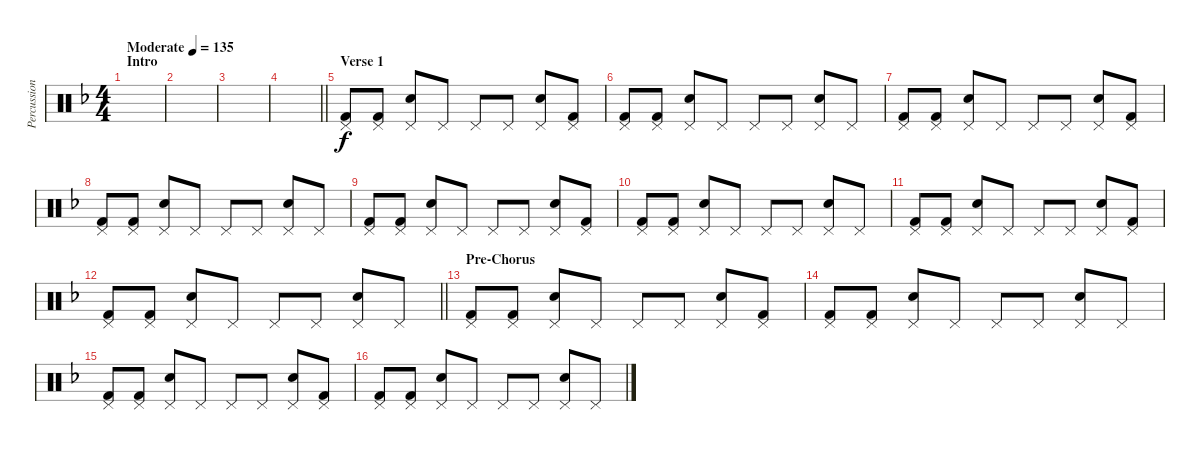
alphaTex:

\track ("Percussion" "Percussion") {instrument percussion}
\staff {score}
\articulation defaults
\ts (4 4)
\section ("" "Intro")
\tempo (135 "Moderate")
\clef neutral
\ks f
|
|
|
\barLineRight lightlight
|
\section ("" "Verse 1")
("Pedal Hi-Hat (hit)" "Kick (hit) 2").8 ("Pedal Hi-Hat (hit)" "Kick (hit) 2").8 ("Pedal Hi-Hat (hit)" "Snare (hit) 2").8 "Pedal Hi-Hat (hit)".8 "Pedal Hi-Hat (hit)".8 "Pedal Hi-Hat (hit)".8 ("Pedal Hi-Hat (hit)" "Snare (hit) 2").8 ("Pedal Hi-Hat (hit)" "Kick (hit) 2").8 |
("Pedal Hi-Hat (hit)" "Kick (hit) 2").8 ("Pedal Hi-Hat (hit)" "Kick (hit) 2").8 ("Pedal Hi-Hat (hit)" "Snare (hit) 2").8 "Pedal Hi-Hat (hit)".8 "Pedal Hi-Hat (hit)".8 "Pedal Hi-Hat (hit)".8 ("Pedal Hi-Hat (hit)" "Snare (hit) 2").8 "Pedal Hi-Hat (hit)".8 |
("Pedal Hi-Hat (hit)" "Kick (hit) 2").8 ("Pedal Hi-Hat (hit)" "Kick (hit) 2").8 ("Pedal Hi-Hat (hit)" "Snare (hit) 2").8 "Pedal Hi-Hat (hit)".8 "Pedal Hi-Hat (hit)".8 "Pedal Hi-Hat (hit)".8 ("Pedal Hi-Hat (hit)" "Snare (hit) 2").8 ("Pedal Hi-Hat (hit)" "Kick (hit) 2").8 |
("Pedal Hi-Hat (hit)" "Kick (hit) 2").8 ("Pedal Hi-Hat (hit)" "Kick (hit) 2").8 ("Pedal Hi-Hat (hit)" "Snare (hit) 2").8 "Pedal Hi-Hat (hit)".8 "Pedal Hi-Hat (hit)".8 "Pedal Hi-Hat (hit)".8 ("Pedal Hi-Hat (hit)" "Snare (hit) 2").8 "Pedal Hi-Hat (hit)".8 |
("Pedal Hi-Hat (hit)" "Kick (hit) 2").8 ("Pedal Hi-Hat (hit)" "Kick (hit) 2").8 ("Pedal Hi-Hat (hit)" "Snare (hit) 2").8 "Pedal Hi-Hat (hit)".8 "Pedal Hi-Hat (hit)".8 "Pedal Hi-Hat (hit)".8 ("Pedal Hi-Hat (hit)" "Snare (hit) 2").8 ("Pedal Hi-Hat (hit)" "Kick (hit) 2").8 |
("Pedal Hi-Hat (hit)" "Kick (hit) 2").8 ("Pedal Hi-Hat (hit)" "Kick (hit) 2").8 ("Pedal Hi-Hat (hit)" "Snare (hit) 2").8 "Pedal Hi-Hat (hit)".8 "Pedal Hi-Hat (hit)".8 "Pedal Hi-Hat (hit)".8 ("Pedal Hi-Hat (hit)" "Snare (hit) 2").8 "Pedal Hi-Hat (hit)".8 |
("Pedal Hi-Hat (hit)" "Kick (hit) 2").8 ("Pedal Hi-Hat (hit)" "Kick (hit) 2").8 ("Pedal Hi-Hat (hit)" "Snare (hit) 2").8 "Pedal Hi-Hat (hit)".8 "Pedal Hi-Hat (hit)".8 "Pedal Hi-Hat (hit)".8 ("Pedal Hi-Hat (hit)" "Snare (hit) 2").8 ("Pedal Hi-Hat (hit)" "Kick (hit) 2").8 |
\barLineRight lightlight
("Pedal Hi-Hat (hit)" "Kick (hit) 2").8 ("Pedal Hi-Hat (hit)" "Kick (hit) 2").8 ("Pedal Hi-Hat (hit)" "Snare (hit) 2").8 "Pedal Hi-Hat (hit)".8 "Pedal Hi-Hat (hit)".8 "Pedal Hi-Hat (hit)".8 ("Pedal Hi-Hat (hit)" "Snare (hit) 2").8 "Pedal Hi-Hat (hit)".8 |
\section ("" "Pre-Chorus")
("Pedal Hi-Hat (hit)" "Kick (hit) 2").8 ("Pedal Hi-Hat (hit)" "Kick (hit) 2").8 ("Pedal Hi-Hat (hit)" "Snare (hit) 2").8 "Pedal Hi-Hat (hit)".8 "Pedal Hi-Hat (hit)".8 "Pedal Hi-Hat (hit)".8 ("Pedal Hi-Hat (hit)" "Snare (hit) 2").8 ("Pedal Hi-Hat (hit)" "Kick (hit) 2").8 |
("Pedal Hi-Hat (hit)" "Kick (hit) 2").8 ("Pedal Hi-Hat (hit)" "Kick (hit) 2").8 ("Pedal Hi-Hat (hit)" "Snare (hit) 2").8 "Pedal Hi-Hat (hit)".8 "Pedal Hi-Hat (hit)".8 "Pedal Hi-Hat (hit)".8 ("Pedal Hi-Hat (hit)" "Snare (hit) 2").8 "Pedal Hi-Hat (hit)".8 |
("Pedal Hi-Hat (hit)" "Kick (hit) 2").8 ("Pedal Hi-Hat (hit)" "Kick (hit) 2").8 ("Pedal Hi-Hat (hit)" "Snare (hit) 2").8 "Pedal Hi-Hat (hit)".8 "Pedal Hi-Hat (hit)".8 "Pedal Hi-Hat (hit)".8 ("Pedal Hi-Hat (hit)" "Snare (hit) 2").8 ("Pedal Hi-Hat (hit)" "Kick (hit) 2").8 |
("Pedal Hi-Hat (hit)" "Kick (hit) 2").8 ("Pedal Hi-Hat (hit)" "Kick (hit) 2").8 ("Pedal Hi-Hat (hit)" "Snare (hit) 2").8 "Pedal Hi-Hat (hit)".8 "Pedal Hi-Hat (hit)".8 "Pedal Hi-Hat (hit)".8 ("Pedal Hi-Hat (hit)" "Snare (hit) 2").8 "Pedal Hi-Hat (hit)".8
